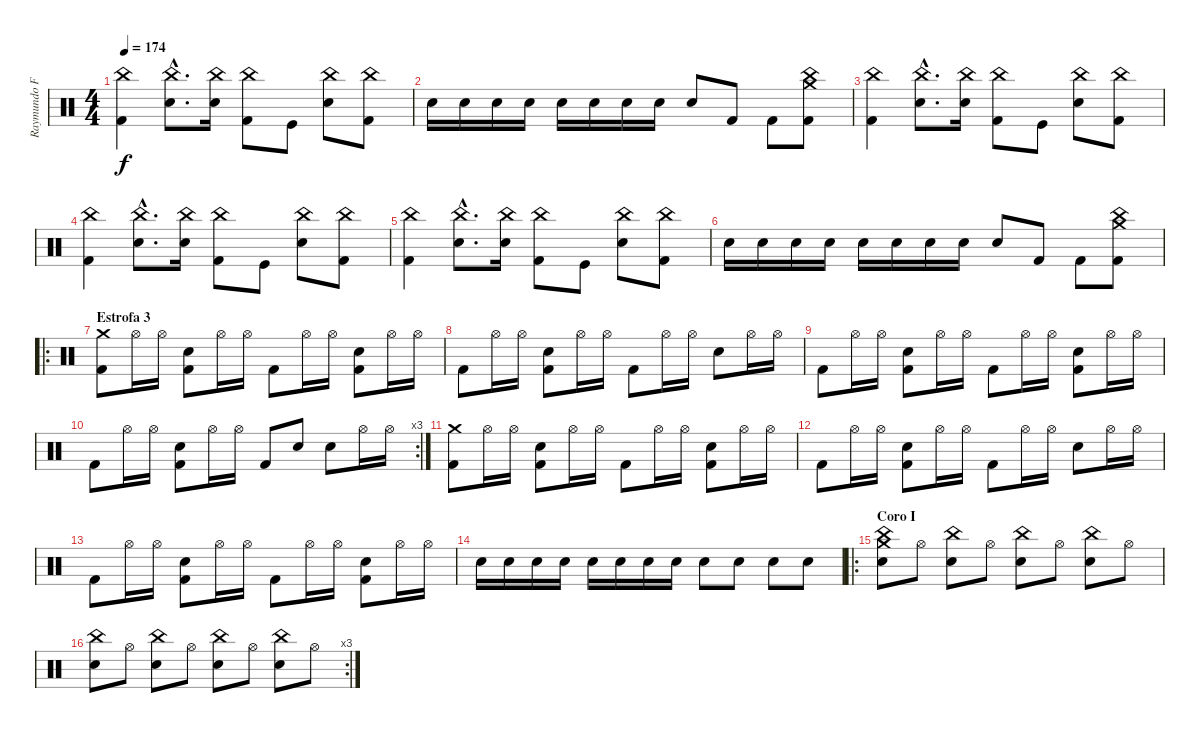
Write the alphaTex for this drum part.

\track ("Raymundo Fajardo (Batería)" "Raymundo F") {instrument percussion}
\staff {score}
\articulation defaults
\ts (4 4)
\tempo 174
\clef neutral
\ks c
("Kick (hit) 2" "China (hit)").4{dy f} ("Snare (hit) 2"{hac} "China (hit)"{hac}).8{d} ("Snare (hit) 2" "China (hit)").16 ("Kick (hit) 2" "China (hit)").8 "Kick (hit)".8 ("China (hit)" "Snare (hit) 2").8 ("Kick (hit) 2" "China (hit)").8 |
"Snare (hit) 2".16 "Snare (hit) 2".16 "Snare (hit) 2".16 "Snare (hit) 2".16 "Snare (hit) 2".16 "Snare (hit) 2".16 "Snare (hit) 2".16 "Snare (hit) 2".16 "Snare (hit) 2".8 "Kick (hit) 2".8 "Kick (hit) 2".8 ("Crash medium (hit)" "Kick (hit) 2" "China (hit)").8 |
("Kick (hit) 2" "China (hit)").4 ("Snare (hit) 2"{hac} "China (hit)"{hac}).8{d} ("Snare (hit) 2" "China (hit)").16 ("Kick (hit) 2" "China (hit)").8 "Kick (hit)".8 ("China (hit)" "Snare (hit) 2").8 ("Kick (hit) 2" "China (hit)").8 |
("Kick (hit) 2" "China (hit)").4 ("Snare (hit) 2"{hac} "China (hit)"{hac}).8{d} ("Snare (hit) 2" "China (hit)").16 ("Kick (hit) 2" "China (hit)").8 "Kick (hit)".8 ("China (hit)" "Snare (hit) 2").8 ("Kick (hit) 2" "China (hit)").8 |
("Kick (hit) 2" "China (hit)").4 ("Snare (hit) 2"{hac} "China (hit)"{hac}).8{d} ("Snare (hit) 2" "China (hit)").16 ("Kick (hit) 2" "China (hit)").8 "Kick (hit)".8 ("China (hit)" "Snare (hit) 2").8 ("Kick (hit) 2" "China (hit)").8 |
"Snare (hit) 2".16 "Snare (hit) 2".16 "Snare (hit) 2".16 "Snare (hit) 2".16 "Snare (hit) 2".16 "Snare (hit) 2".16 "Snare (hit) 2".16 "Snare (hit) 2".16 "Snare (hit) 2".8 "Kick (hit) 2".8 "Kick (hit) 2".8 ("Crash medium (hit)" "Kick (hit) 2" "China (hit)").8 |
\ro
\section ("" "Estrofa 3")
("Crash medium (hit)" "Kick (hit) 2").8 "Hi-Hat (open)".16 "Hi-Hat (open)".16 ("Kick (hit) 2" "Snare (hit) 2").8 "Hi-Hat (open)".16 "Hi-Hat (open)".16 "Kick (hit) 2".8 "Hi-Hat (open)".16 "Hi-Hat (open)".16 ("Kick (hit) 2" "Snare (hit) 2").8 "Hi-Hat (open)".16 "Hi-Hat (open)".16 |
"Kick (hit) 2".8 "Hi-Hat (open)".16 "Hi-Hat (open)".16 ("Kick (hit) 2" "Snare (hit) 2").8 "Hi-Hat (open)".16 "Hi-Hat (open)".16 "Kick (hit) 2".8 "Hi-Hat (open)".16 "Hi-Hat (open)".16 "Snare (hit) 2".8 "Hi-Hat (open)".16 "Hi-Hat (open)".16 |
"Kick (hit) 2".8 "Hi-Hat (open)".16 "Hi-Hat (open)".16 ("Kick (hit) 2" "Snare (hit) 2").8 "Hi-Hat (open)".16 "Hi-Hat (open)".16 "Kick (hit) 2".8 "Hi-Hat (open)".16 "Hi-Hat (open)".16 ("Kick (hit) 2" "Snare (hit) 2").8 "Hi-Hat (open)".16 "Hi-Hat (open)".16 |
\rc 3 "Kick (hit) 2".8 "Hi-Hat (open)".16 "Hi-Hat (open)".16
("Kick (hit) 2" "Snare (hit) 2").8 "Hi-Hat (open)".16 "Hi-Hat (open)".16 "Kick (hit) 2".8 "Snare (hit) 2".8 "Snare (hit) 2".8 "Hi-Hat (open)".16 "Hi-Hat (open)".16 |
("Crash medium (hit)" "Kick (hit) 2").8 "Hi-Hat (open)".16 "Hi-Hat (open)".16 ("Kick (hit) 2" "Snare (hit) 2").8 "Hi-Hat (open)".16 "Hi-Hat (open)".16 "Kick (hit) 2".8 "Hi-Hat (open)".16 "Hi-Hat (open)".16 ("Kick (hit) 2" "Snare (hit) 2").8 "Hi-Hat (open)".16 "Hi-Hat (open)".16 |
"Kick (hit) 2".8 "Hi-Hat (open)".16 "Hi-Hat (open)".16 ("Kick (hit) 2" "Snare (hit) 2").8 "Hi-Hat (open)".16 "Hi-Hat (open)".16 "Kick (hit) 2".8 "Hi-Hat (open)".16 "Hi-Hat (open)".16 "Snare (hit) 2".8 "Hi-Hat (open)".16 "Hi-Hat (open)".16 |
"Kick (hit) 2".8 "Hi-Hat (open)".16 "Hi-Hat (open)".16 ("Kick (hit) 2" "Snare (hit) 2").8 "Hi-Hat (open)".16 "Hi-Hat (open)".16 "Kick (hit) 2".8 "Hi-Hat (open)".16 "Hi-Hat (open)".16 ("Kick (hit) 2" "Snare (hit) 2").8 "Hi-Hat (open)".16 "Hi-Hat (open)".16 |
"Snare (hit) 2".16 "Snare (hit) 2".16 "Snare (hit) 2".16 "Snare (hit) 2".16 "Snare (hit) 2".16 "Snare (hit) 2".16 "Snare (hit) 2".16 "Snare (hit) 2".16 "Snare (hit) 2".8 "Snare (hit) 2".8 "Snare (hit) 2".8 "Snare (hit) 2".8 |
\ro
\section ("" "Coro I")
("Crash medium (hit)" "Snare (hit) 2" "China (hit)").8 "Hi-Hat (open)".8 ("Snare (hit) 2" "China (hit)").8 "Hi-Hat (open)".8 ("Snare (hit) 2" "China (hit)").8 "Hi-Hat (open)".8 ("Snare (hit) 2" "China (hit)").8 "Hi-Hat (open)".8 |
\rc 3
("Snare (hit) 2" "China (hit)").8 "Hi-Hat (open)".8 ("Snare (hit) 2" "China (hit)").8 "Hi-Hat (open)".8 ("Snare (hit) 2" "China (hit)").8 "Hi-Hat (open)".8 ("Snare (hit) 2" "China (hit)").8 "Hi-Hat (open)".8
